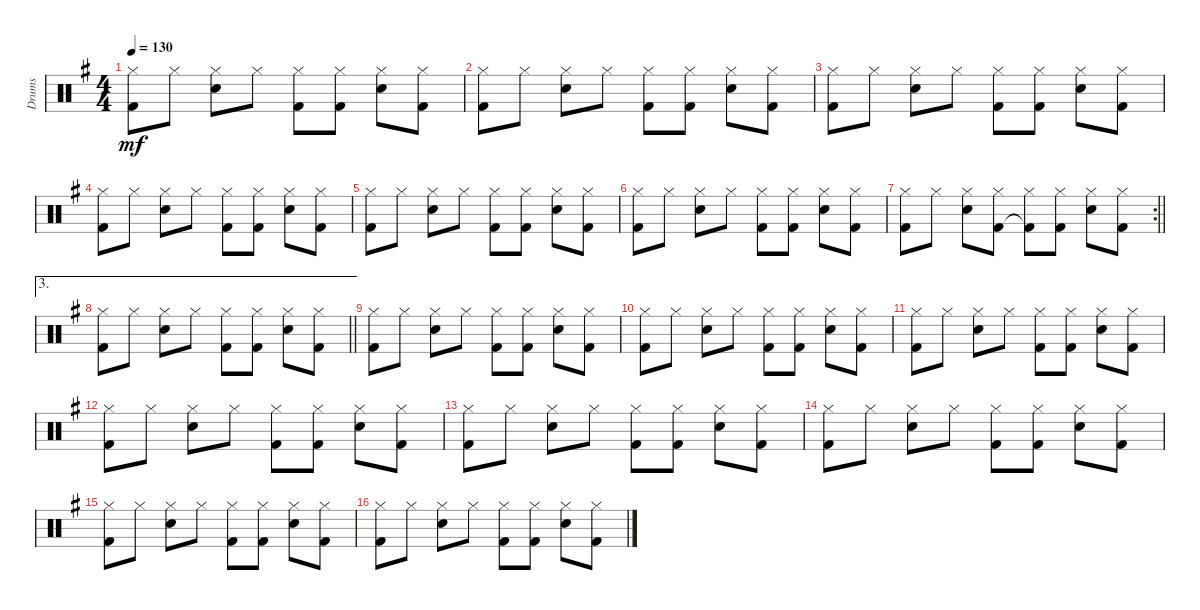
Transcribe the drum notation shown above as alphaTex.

\track ("Drums" "Drums") {instrument percussion}
\staff {score}
\articulation defaults
\ts (4 4)
\tempo 130
\clef neutral
\ks g
("Hi-Hat (closed)" "Kick (hit) 2").8{dy mf} "Hi-Hat (closed)".8 ("Hi-Hat (closed)" "Snare (hit) 2").8 "Hi-Hat (closed)".8 ("Hi-Hat (closed)" "Kick (hit) 2").8 ("Hi-Hat (closed)" "Kick (hit) 2").8 ("Hi-Hat (closed)" "Snare (hit) 2").8 ("Hi-Hat (closed)" "Kick (hit) 2").8 |
("Hi-Hat (closed)" "Kick (hit) 2").8 "Hi-Hat (closed)".8 ("Hi-Hat (closed)" "Snare (hit) 2").8 "Hi-Hat (closed)".8 ("Hi-Hat (closed)" "Kick (hit) 2").8 ("Hi-Hat (closed)" "Kick (hit) 2").8 ("Hi-Hat (closed)" "Snare (hit) 2").8 ("Hi-Hat (closed)" "Kick (hit) 2").8 |
("Hi-Hat (closed)" "Kick (hit) 2").8 "Hi-Hat (closed)".8 ("Hi-Hat (closed)" "Snare (hit) 2").8 "Hi-Hat (closed)".8 ("Hi-Hat (closed)" "Kick (hit) 2").8 ("Hi-Hat (closed)" "Kick (hit) 2").8 ("Hi-Hat (closed)" "Snare (hit) 2").8 ("Hi-Hat (closed)" "Kick (hit) 2").8 |
("Hi-Hat (closed)" "Kick (hit) 2").8 "Hi-Hat (closed)".8 ("Hi-Hat (closed)" "Snare (hit) 2").8 "Hi-Hat (closed)".8 ("Hi-Hat (closed)" "Kick (hit) 2").8 ("Hi-Hat (closed)" "Kick (hit) 2").8 ("Hi-Hat (closed)" "Snare (hit) 2").8 ("Hi-Hat (closed)" "Kick (hit) 2").8 |
("Hi-Hat (closed)" "Kick (hit) 2").8 "Hi-Hat (closed)".8 ("Hi-Hat (closed)" "Snare (hit) 2").8 "Hi-Hat (closed)".8 ("Hi-Hat (closed)" "Kick (hit) 2").8 ("Hi-Hat (closed)" "Kick (hit) 2").8 ("Hi-Hat (closed)" "Snare (hit) 2").8 ("Hi-Hat (closed)" "Kick (hit) 2").8 |
("Hi-Hat (closed)" "Kick (hit) 2").8 "Hi-Hat (closed)".8 ("Hi-Hat (closed)" "Snare (hit) 2").8 "Hi-Hat (closed)".8 ("Hi-Hat (closed)" "Kick (hit) 2").8 ("Hi-Hat (closed)" "Kick (hit) 2").8 ("Hi-Hat (closed)" "Snare (hit) 2").8 ("Hi-Hat (closed)" "Kick (hit) 2").8 |
\rc 2
\barLineRight lightlight
("Hi-Hat (closed)" "Kick (hit) 2").8 "Hi-Hat (closed)".8 ("Hi-Hat (closed)" "Snare (hit) 2").8 ("Hi-Hat (closed)" "Kick (hit) 2").8 ("Hi-Hat (closed)" "Kick (hit) 2"{t}).8 ("Hi-Hat (closed)" "Kick (hit) 2").8 ("Hi-Hat (closed)" "Snare (hit) 2").8 ("Hi-Hat (closed)" "Kick (hit) 2").8 |
\ae 3
\barLineRight lightlight
("Hi-Hat (closed)" "Kick (hit) 2").8 "Hi-Hat (closed)".8 ("Hi-Hat (closed)" "Snare (hit) 2").8 "Hi-Hat (closed)".8 ("Hi-Hat (closed)" "Kick (hit) 2").8 ("Hi-Hat (closed)" "Kick (hit) 2").8 ("Hi-Hat (closed)" "Snare (hit) 2").8 ("Hi-Hat (closed)" "Kick (hit) 2").8 |
("Hi-Hat (closed)" "Kick (hit) 2").8 "Hi-Hat (closed)".8 ("Hi-Hat (closed)" "Snare (hit) 2").8 "Hi-Hat (closed)".8 ("Hi-Hat (closed)" "Kick (hit) 2").8 ("Hi-Hat (closed)" "Kick (hit) 2").8 ("Hi-Hat (closed)" "Snare (hit) 2").8 ("Hi-Hat (closed)" "Kick (hit) 2").8 |
("Hi-Hat (closed)" "Kick (hit) 2").8 "Hi-Hat (closed)".8 ("Hi-Hat (closed)" "Snare (hit) 2").8 "Hi-Hat (closed)".8 ("Hi-Hat (closed)" "Kick (hit) 2").8 ("Hi-Hat (closed)" "Kick (hit) 2").8 ("Hi-Hat (closed)" "Snare (hit) 2").8 ("Hi-Hat (closed)" "Kick (hit) 2").8 |
("Hi-Hat (closed)" "Kick (hit) 2").8 "Hi-Hat (closed)".8 ("Hi-Hat (closed)" "Snare (hit) 2").8 "Hi-Hat (closed)".8 ("Hi-Hat (closed)" "Kick (hit) 2").8 ("Hi-Hat (closed)" "Kick (hit) 2").8 ("Hi-Hat (closed)" "Snare (hit) 2").8 ("Hi-Hat (closed)" "Kick (hit) 2").8 |
("Hi-Hat (closed)" "Kick (hit) 2").8 "Hi-Hat (closed)".8 ("Hi-Hat (closed)" "Snare (hit) 2").8 "Hi-Hat (closed)".8 ("Hi-Hat (closed)" "Kick (hit) 2").8 ("Hi-Hat (closed)" "Kick (hit) 2").8 ("Hi-Hat (closed)" "Snare (hit) 2").8 ("Hi-Hat (closed)" "Kick (hit) 2").8 |
("Hi-Hat (closed)" "Kick (hit) 2").8 "Hi-Hat (closed)".8 ("Hi-Hat (closed)" "Snare (hit) 2").8 "Hi-Hat (closed)".8 ("Hi-Hat (closed)" "Kick (hit) 2").8 ("Hi-Hat (closed)" "Kick (hit) 2").8 ("Hi-Hat (closed)" "Snare (hit) 2").8 ("Hi-Hat (closed)" "Kick (hit) 2").8 |
("Hi-Hat (closed)" "Kick (hit) 2").8 "Hi-Hat (closed)".8 ("Hi-Hat (closed)" "Snare (hit) 2").8 "Hi-Hat (closed)".8 ("Hi-Hat (closed)" "Kick (hit) 2").8 ("Hi-Hat (closed)" "Kick (hit) 2").8 ("Hi-Hat (closed)" "Snare (hit) 2").8 ("Hi-Hat (closed)" "Kick (hit) 2").8 |
("Hi-Hat (closed)" "Kick (hit) 2").8 "Hi-Hat (closed)".8 ("Hi-Hat (closed)" "Snare (hit) 2").8 "Hi-Hat (closed)".8 ("Hi-Hat (closed)" "Kick (hit) 2").8 ("Hi-Hat (closed)" "Kick (hit) 2").8 ("Hi-Hat (closed)" "Snare (hit) 2").8 ("Hi-Hat (closed)" "Kick (hit) 2").8 |
("Hi-Hat (closed)" "Kick (hit) 2").8 "Hi-Hat (closed)".8 ("Hi-Hat (closed)" "Snare (hit) 2").8 "Hi-Hat (closed)".8 ("Hi-Hat (closed)" "Kick (hit) 2").8 ("Hi-Hat (closed)" "Kick (hit) 2").8 ("Hi-Hat (closed)" "Snare (hit) 2").8 ("Hi-Hat (closed)" "Kick (hit) 2").8
